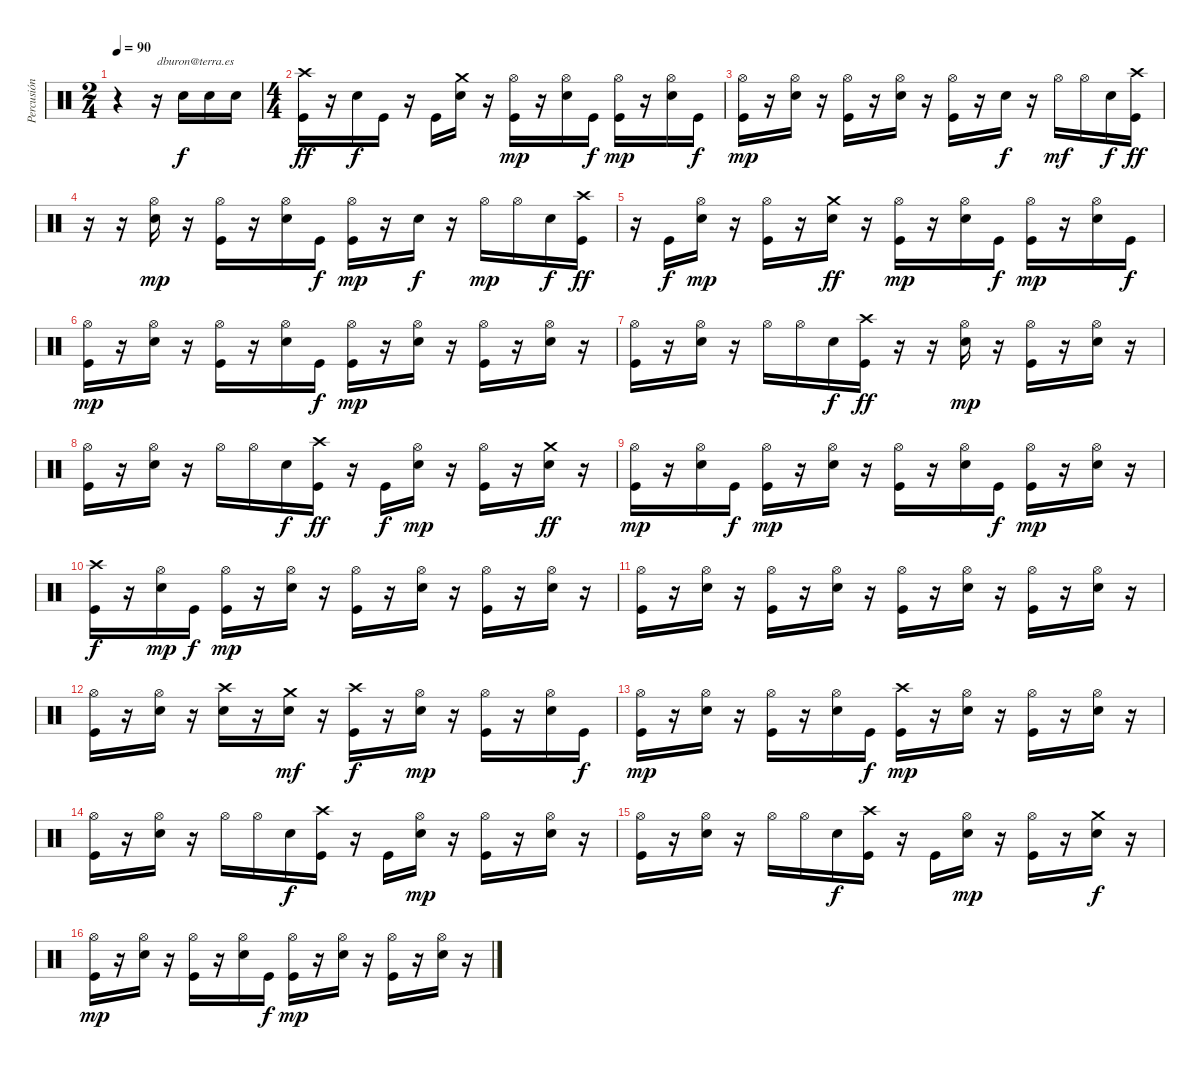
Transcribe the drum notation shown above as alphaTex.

\track ("Percusión" "Percusión") {instrument percussion}
\staff {score}
\articulation defaults
\ts (2 4)
\tempo 90
\clef neutral
\ks c
r.4{dy f} r.16{txt "dburon@terra.es"} "Snare (hit) 2".16 "Snare (hit) 2".16 "Snare (hit) 2".16 |
\ts (4 4)
("Crash high (hit)" "Kick (hit)").16{dy ff} r.16 "Snare (hit) 2".16{dy f} "Kick (hit)".16 r.16 "Kick (hit)".16 ("Crash medium (hit)" "Snare (hit) 2").16 r.16 ("Hi-Hat (open)" "Kick (hit)").16{dy mp} r.16 ("Hi-Hat (open)" "Snare (hit) 2").16 "Kick (hit)".16{dy f} ("Hi-Hat (open)" "Kick (hit)").16{dy mp} r.16 ("Hi-Hat (open)" "Snare (hit) 2").16 "Kick (hit)".16{dy f} |
("Hi-Hat (open)" "Kick (hit)").16{dy mp} r.16 ("Hi-Hat (open)" "Snare (hit) 2").16 r.16 ("Hi-Hat (open)" "Kick (hit)").16 r.16 ("Hi-Hat (open)" "Snare (hit) 2").16 r.16 ("Hi-Hat (open)" "Kick (hit)").16 r.16 "Snare (hit) 2".16{dy f} r.16 "Hi-Hat (open)".16{dy mf} "Hi-Hat (open)".16 "Snare (hit) 2".16{dy f} ("Crash high (hit)" "Kick (hit)").16{dy ff} |
r.16 r.16 ("Hi-Hat (open)" "Snare (hit) 2").16{dy mp} r.16 ("Hi-Hat (open)" "Kick (hit)").16 r.16 ("Hi-Hat (open)" "Snare (hit) 2").16 "Kick (hit)".16{dy f} ("Hi-Hat (open)" "Kick (hit)").16{dy mp} r.16 "Snare (hit) 2".16{dy f} r.16 "Hi-Hat (open)".16{dy mp} "Hi-Hat (open)".16 "Snare (hit) 2".16{dy f} ("Crash high (hit)" "Kick (hit)").16{dy ff} |
r.16 "Kick (hit)".16{dy f} ("Hi-Hat (open)" "Snare (hit) 2").16{dy mp} r.16 ("Hi-Hat (open)" "Kick (hit)").16 r.16 ("Crash medium (hit)" "Snare (hit) 2").16{dy ff} r.16 ("Hi-Hat (open)" "Kick (hit)").16{dy mp} r.16 ("Hi-Hat (open)" "Snare (hit) 2").16 "Kick (hit)".16{dy f} ("Hi-Hat (open)" "Kick (hit)").16{dy mp} r.16 ("Hi-Hat (open)" "Snare (hit) 2").16 "Kick (hit)".16{dy f} |
("Hi-Hat (open)" "Kick (hit)").16{dy mp} r.16 ("Hi-Hat (open)" "Snare (hit) 2").16 r.16 ("Hi-Hat (open)" "Kick (hit)").16 r.16 ("Hi-Hat (open)" "Snare (hit) 2").16 "Kick (hit)".16{dy f} ("Hi-Hat (open)" "Kick (hit)").16{dy mp} r.16 ("Hi-Hat (open)" "Snare (hit) 2").16 r.16 ("Hi-Hat (open)" "Kick (hit)").16 r.16 ("Hi-Hat (open)" "Snare (hit) 2").16 r.16 |
("Hi-Hat (open)" "Kick (hit)").16 r.16 ("Hi-Hat (open)" "Snare (hit) 2").16 r.16 "Hi-Hat (open)".16 "Hi-Hat (open)".16 "Snare (hit) 2".16{dy f} ("Crash high (hit)" "Kick (hit)").16{dy ff} r.16 r.16 ("Hi-Hat (open)" "Snare (hit) 2").16{dy mp} r.16 ("Hi-Hat (open)" "Kick (hit)").16 r.16 ("Hi-Hat (open)" "Snare (hit) 2").16 r.16 |
("Hi-Hat (open)" "Kick (hit)").16 r.16 ("Hi-Hat (open)" "Snare (hit) 2").16 r.16 "Hi-Hat (open)".16 "Hi-Hat (open)".16 "Snare (hit) 2".16{dy f} ("Crash high (hit)" "Kick (hit)").16{dy ff} r.16 "Kick (hit)".16{dy f} ("Hi-Hat (open)" "Snare (hit) 2").16{dy mp} r.16 ("Hi-Hat (open)" "Kick (hit)").16 r.16 ("Crash medium (hit)" "Snare (hit) 2").16{dy ff} r.16 |
("Hi-Hat (open)" "Kick (hit)").16{dy mp} r.16 ("Hi-Hat (open)" "Snare (hit) 2").16 "Kick (hit)".16{dy f} ("Hi-Hat (open)" "Kick (hit)").16{dy mp} r.16 ("Hi-Hat (open)" "Snare (hit) 2").16 r.16 ("Hi-Hat (open)" "Kick (hit)").16 r.16 ("Hi-Hat (open)" "Snare (hit) 2").16 "Kick (hit)".16{dy f} ("Hi-Hat (open)" "Kick (hit)").16{dy mp} r.16 ("Hi-Hat (open)" "Snare (hit) 2").16 r.16 |
("Crash high (hit)" "Kick (hit)").16{dy f} r.16 ("Hi-Hat (open)" "Snare (hit) 2").16{dy mp} "Kick (hit)".16{dy f} ("Hi-Hat (open)" "Kick (hit)").16{dy mp} r.16 ("Hi-Hat (open)" "Snare (hit) 2").16 r.16 ("Hi-Hat (open)" "Kick (hit)").16 r.16 ("Hi-Hat (open)" "Snare (hit) 2").16 r.16 ("Hi-Hat (open)" "Kick (hit)").16 r.16 ("Hi-Hat (open)" "Snare (hit) 2").16 r.16 |
("Hi-Hat (open)" "Kick (hit)").16 r.16 ("Hi-Hat (open)" "Snare (hit) 2").16 r.16 ("Hi-Hat (open)" "Kick (hit)").16 r.16 ("Hi-Hat (open)" "Snare (hit) 2").16 r.16 ("Hi-Hat (open)" "Kick (hit)").16 r.16 ("Hi-Hat (open)" "Snare (hit) 2").16 r.16 ("Hi-Hat (open)" "Kick (hit)").16 r.16 ("Hi-Hat (open)" "Snare (hit) 2").16 r.16 |
("Hi-Hat (open)" "Kick (hit)").16 r.16 ("Hi-Hat (open)" "Snare (hit) 2").16 r.16 ("Crash high (hit)" "Snare (hit) 2").16 r.16 ("Crash medium (hit)" "Snare (hit) 2").16{dy mf} r.16 ("Crash high (hit)" "Kick (hit)").16{dy f} r.16 ("Hi-Hat (open)" "Snare (hit) 2").16{dy mp} r.16 ("Hi-Hat (open)" "Kick (hit)").16 r.16 ("Hi-Hat (open)" "Snare (hit) 2").16 "Kick (hit)".16{dy f} |
("Hi-Hat (open)" "Kick (hit)").16{dy mp} r.16 ("Hi-Hat (open)" "Snare (hit) 2").16 r.16 ("Hi-Hat (open)" "Kick (hit)").16 r.16 ("Hi-Hat (open)" "Snare (hit) 2").16 "Kick (hit)".16{dy f} ("Crash high (hit)" "Kick (hit)").16{dy mp} r.16 ("Hi-Hat (open)" "Snare (hit) 2").16 r.16 ("Hi-Hat (open)" "Kick (hit)").16 r.16 ("Hi-Hat (open)" "Snare (hit) 2").16 r.16 |
("Hi-Hat (open)" "Kick (hit)").16 r.16 ("Hi-Hat (open)" "Snare (hit) 2").16 r.16 "Hi-Hat (open)".16 "Hi-Hat (open)".16 "Snare (hit) 2".16{dy f} ("Crash high (hit)" "Kick (hit)").16 r.16 "Kick (hit)".16 ("Hi-Hat (open)" "Snare (hit) 2").16{dy mp} r.16 ("Hi-Hat (open)" "Kick (hit)").16 r.16 ("Hi-Hat (open)" "Snare (hit) 2").16 r.16 |
("Hi-Hat (open)" "Kick (hit)").16 r.16 ("Hi-Hat (open)" "Snare (hit) 2").16 r.16 "Hi-Hat (open)".16 "Hi-Hat (open)".16 "Snare (hit) 2".16{dy f} ("Crash high (hit)" "Kick (hit)").16 r.16 "Kick (hit)".16 ("Hi-Hat (open)" "Snare (hit) 2").16{dy mp} r.16 ("Hi-Hat (open)" "Kick (hit)").16 r.16 ("Crash medium (hit)" "Snare (hit) 2").16{dy f} r.16 |
("Hi-Hat (open)" "Kick (hit)").16{dy mp} r.16 ("Hi-Hat (open)" "Snare (hit) 2").16 r.16 ("Hi-Hat (open)" "Kick (hit)").16 r.16 ("Hi-Hat (open)" "Snare (hit) 2").16 "Kick (hit)".16{dy f} ("Hi-Hat (open)" "Kick (hit)").16{dy mp} r.16 ("Hi-Hat (open)" "Snare (hit) 2").16 r.16 ("Hi-Hat (open)" "Kick (hit)").16 r.16 ("Hi-Hat (open)" "Snare (hit) 2").16 r.16
